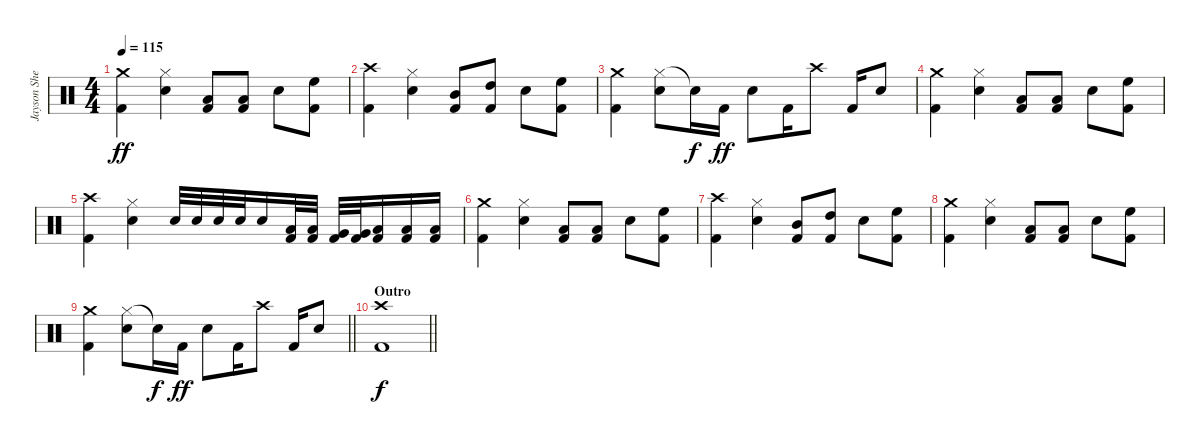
\track ("Jayson Sherlock" "Jayson She") {instrument percussion}
\staff {score}
\articulation defaults
\ts (4 4)
\tempo 115
\clef neutral
\ks c
("Kick (hit) 2" "Crash medium (hit)").4{dy ff} ("Hi-Hat (closed)" "Snare (hit) 2").4 ("Kick (hit) 2" "Low Tom (hit)").8 ("Kick (hit) 2" "Low Tom (hit)").8 "Snare (hit) 2".8 ("Kick (hit) 2" "High Floor Tom (hit)").8 |
("Kick (hit) 2" "Crash high (hit)").4 ("Hi-Hat (closed)" "Snare (hit) 2").4 ("Kick (hit) 2" "Mid Tom (hit)").8 ("Kick (hit) 2" "High Tom (hit)").8 "Snare (hit) 2".8 ("Kick (hit) 2" "High Floor Tom (hit)").8 |
("Kick (hit) 2" "Crash medium (hit)").4 ("Hi-Hat (closed)" "Snare (hit) 2").8 "Snare (hit)"{t}.16{dy f} "Kick (hit) 2".16{dy ff} "Snare (hit) 2".8 "Kick (hit) 2".16 "Crash high (hit)".8 "Kick (hit) 2".16 "Snare (hit) 2".8 |
("Kick (hit) 2" "Crash medium (hit)").4 ("Hi-Hat (closed)" "Snare (hit) 2").4 ("Kick (hit) 2" "Low Tom (hit)").8 ("Kick (hit) 2" "Low Tom (hit)").8 "Snare (hit) 2".8 ("Kick (hit) 2" "High Floor Tom (hit)").8 |
("Kick (hit) 2" "Crash high (hit)").4 ("Hi-Hat (closed)" "Snare (hit) 2").4 "Snare (hit) 2".32 "Snare (hit) 2".32 "Snare (hit) 2".32 "Snare (hit) 2".32 "Snare (hit) 2".16 ("Kick (hit) 2" "Low Tom (hit)").32 ("Kick (hit) 2" "Low Tom (hit)").32 ("Kick (hit) 2" "Very Low Tom (hit)").32 ("Kick (hit) 2" "Very Low Tom (hit)").32 ("Kick (hit) 2" "Low Floor Tom (hit)").16 ("Kick (hit) 2" "Low Floor Tom (hit)").16 ("Kick (hit) 2" "Low Floor Tom (hit)").16 |
("Kick (hit) 2" "Crash medium (hit)").4 ("Hi-Hat (closed)" "Snare (hit) 2").4 ("Kick (hit) 2" "Low Tom (hit)").8 ("Kick (hit) 2" "Low Tom (hit)").8 "Snare (hit) 2".8 ("Kick (hit) 2" "High Floor Tom (hit)").8 |
("Kick (hit) 2" "Crash high (hit)").4 ("Hi-Hat (closed)" "Snare (hit) 2").4 ("Kick (hit) 2" "Mid Tom (hit)").8 ("Kick (hit) 2" "High Tom (hit)").8 "Snare (hit) 2".8 ("Kick (hit) 2" "High Floor Tom (hit)").8 |
("Kick (hit) 2" "Crash medium (hit)").4 ("Hi-Hat (closed)" "Snare (hit) 2").4 ("Kick (hit) 2" "Low Tom (hit)").8 ("Kick (hit) 2" "Low Tom (hit)").8 "Snare (hit) 2".8 ("Kick (hit) 2" "High Floor Tom (hit)").8 |
\barLineRight lightlight
("Kick (hit) 2" "Crash medium (hit)").4 ("Hi-Hat (closed)" "Snare (hit) 2").8 "Snare (hit)"{t}.16{dy f} "Kick (hit) 2".16{dy ff} "Snare (hit) 2".8 "Kick (hit) 2".16 "Crash high (hit)".8 "Kick (hit) 2".16 "Snare (hit) 2".8 |
\section ("" "Outro")
\barLineRight lightlight
("Kick (hit) 2" "Crash high (hit)").1{dy f}
